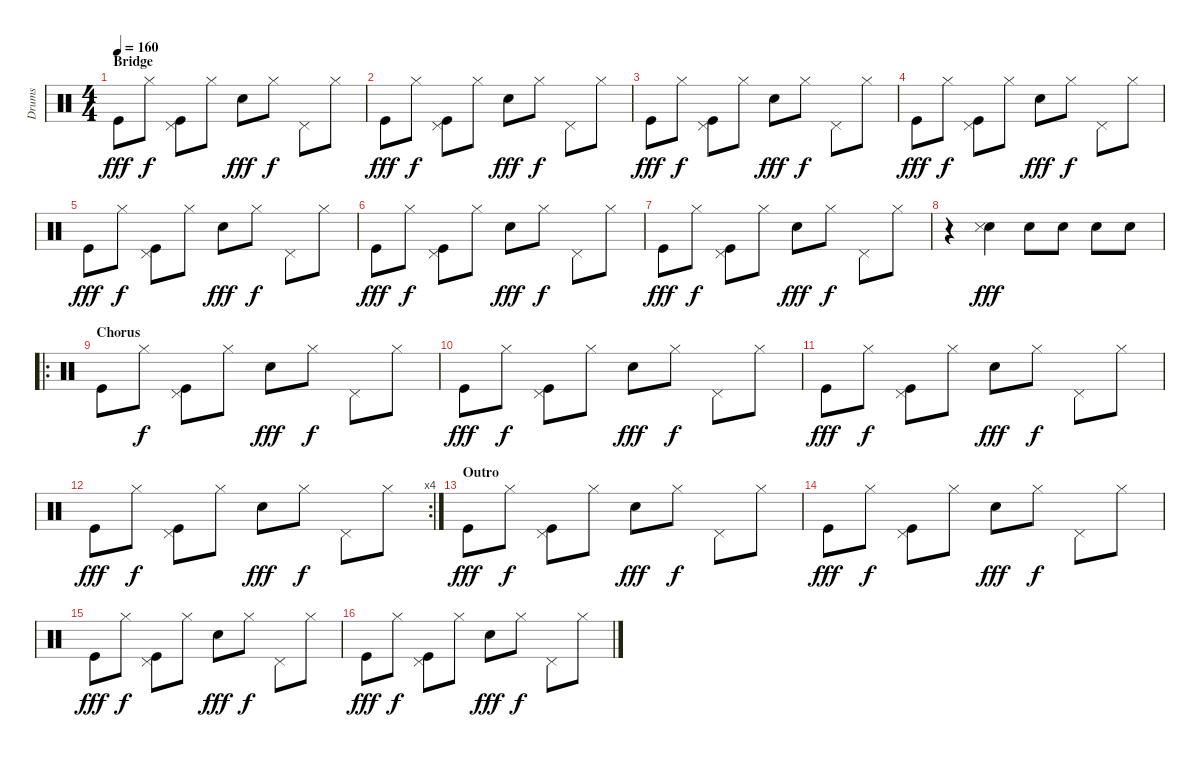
\track ("Drums" "Drums") {instrument percussion}
\staff {score}
\articulation defaults
\ts (4 4)
\section ("" "Bridge")
\tempo 160
\clef neutral
\ks c "Kick (hit)".8{dy fff} "Hi-Hat (closed)".8{dy f}
("Kick (hit)" "Pedal Hi-Hat (hit)").8 "Hi-Hat (closed)".8 "Snare (hit) 2".8{dy fff} "Hi-Hat (closed)".8{dy f} "Pedal Hi-Hat (hit)".8 "Hi-Hat (closed)".8 |
"Kick (hit)".8{dy fff} "Hi-Hat (closed)".8{dy f} ("Kick (hit)" "Pedal Hi-Hat (hit)").8 "Hi-Hat (closed)".8 "Snare (hit) 2".8{dy fff} "Hi-Hat (closed)".8{dy f} "Pedal Hi-Hat (hit)".8 "Hi-Hat (closed)".8 |
"Kick (hit)".8{dy fff} "Hi-Hat (closed)".8{dy f} ("Kick (hit)" "Pedal Hi-Hat (hit)").8 "Hi-Hat (closed)".8 "Snare (hit) 2".8{dy fff} "Hi-Hat (closed)".8{dy f} "Pedal Hi-Hat (hit)".8 "Hi-Hat (closed)".8 |
"Kick (hit)".8{dy fff} "Hi-Hat (closed)".8{dy f} ("Kick (hit)" "Pedal Hi-Hat (hit)").8 "Hi-Hat (closed)".8 "Snare (hit) 2".8{dy fff} "Hi-Hat (closed)".8{dy f} "Pedal Hi-Hat (hit)".8 "Hi-Hat (closed)".8 |
"Kick (hit)".8{dy fff} "Hi-Hat (closed)".8{dy f} ("Kick (hit)" "Pedal Hi-Hat (hit)").8 "Hi-Hat (closed)".8 "Snare (hit) 2".8{dy fff} "Hi-Hat (closed)".8{dy f} "Pedal Hi-Hat (hit)".8 "Hi-Hat (closed)".8 |
"Kick (hit)".8{dy fff} "Hi-Hat (closed)".8{dy f} ("Kick (hit)" "Pedal Hi-Hat (hit)").8 "Hi-Hat (closed)".8 "Snare (hit) 2".8{dy fff} "Hi-Hat (closed)".8{dy f} "Pedal Hi-Hat (hit)".8 "Hi-Hat (closed)".8 |
"Kick (hit)".8{dy fff} "Hi-Hat (closed)".8{dy f} ("Kick (hit)" "Pedal Hi-Hat (hit)").8 "Hi-Hat (closed)".8 "Snare (hit) 2".8{dy fff} "Hi-Hat (closed)".8{dy f} "Pedal Hi-Hat (hit)".8 "Hi-Hat (closed)".8 |
r.4 ("Snare (hit) 2" "Snare (side stick) 3").4{dy fff} "Snare (hit) 2".8 "Snare (hit) 2".8 "Snare (hit) 2".8 "Snare (hit) 2".8 |
\ro
\section ("" "Chorus")
"Kick (hit)".8 "Hi-Hat (closed)".8{dy f} ("Kick (hit)" "Pedal Hi-Hat (hit)").8 "Hi-Hat (closed)".8 "Snare (hit) 2".8{dy fff} "Hi-Hat (closed)".8{dy f} "Pedal Hi-Hat (hit)".8 "Hi-Hat (closed)".8 |
"Kick (hit)".8{dy fff} "Hi-Hat (closed)".8{dy f} ("Kick (hit)" "Pedal Hi-Hat (hit)").8 "Hi-Hat (closed)".8 "Snare (hit) 2".8{dy fff} "Hi-Hat (closed)".8{dy f} "Pedal Hi-Hat (hit)".8 "Hi-Hat (closed)".8 |
"Kick (hit)".8{dy fff} "Hi-Hat (closed)".8{dy f} ("Kick (hit)" "Pedal Hi-Hat (hit)").8 "Hi-Hat (closed)".8 "Snare (hit) 2".8{dy fff} "Hi-Hat (closed)".8{dy f} "Pedal Hi-Hat (hit)".8 "Hi-Hat (closed)".8 |
\rc 4 "Kick (hit)".8{dy fff} "Hi-Hat (closed)".8{dy f}
("Kick (hit)" "Pedal Hi-Hat (hit)").8 "Hi-Hat (closed)".8 "Snare (hit) 2".8{dy fff} "Hi-Hat (closed)".8{dy f} "Pedal Hi-Hat (hit)".8 "Hi-Hat (closed)".8 |
\section ("" "Outro")
"Kick (hit)".8{dy fff} "Hi-Hat (closed)".8{dy f} ("Kick (hit)" "Pedal Hi-Hat (hit)").8 "Hi-Hat (closed)".8 "Snare (hit) 2".8{dy fff} "Hi-Hat (closed)".8{dy f} "Pedal Hi-Hat (hit)".8 "Hi-Hat (closed)".8 |
"Kick (hit)".8{dy fff} "Hi-Hat (closed)".8{dy f} ("Kick (hit)" "Pedal Hi-Hat (hit)").8 "Hi-Hat (closed)".8 "Snare (hit) 2".8{dy fff} "Hi-Hat (closed)".8{dy f} "Pedal Hi-Hat (hit)".8 "Hi-Hat (closed)".8 |
"Kick (hit)".8{dy fff} "Hi-Hat (closed)".8{dy f} ("Kick (hit)" "Pedal Hi-Hat (hit)").8 "Hi-Hat (closed)".8 "Snare (hit) 2".8{dy fff} "Hi-Hat (closed)".8{dy f} "Pedal Hi-Hat (hit)".8 "Hi-Hat (closed)".8 |
"Kick (hit)".8{dy fff} "Hi-Hat (closed)".8{dy f} ("Kick (hit)" "Pedal Hi-Hat (hit)").8 "Hi-Hat (closed)".8 "Snare (hit) 2".8{dy fff} "Hi-Hat (closed)".8{dy f} "Pedal Hi-Hat (hit)".8 "Hi-Hat (closed)".8
